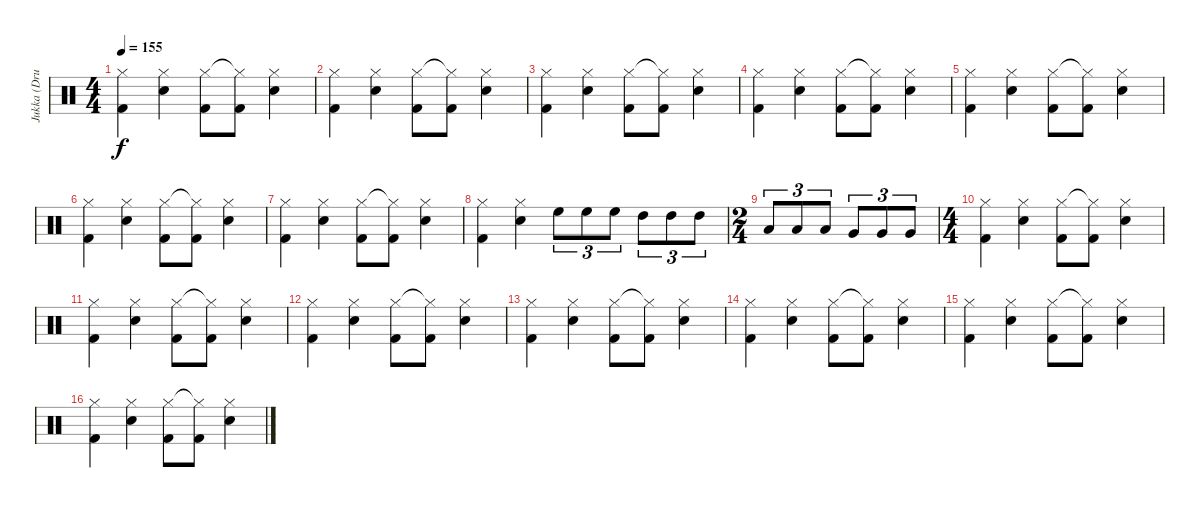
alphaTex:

\track ("Jukka (Drums)" "Jukka (Dru") {instrument percussion}
\staff {score}
\articulation defaults
\ts (4 4)
\tempo 155
\clef neutral
\ks c
("Hi-Hat (closed)" "Kick (hit) 2").4{dy f} ("Hi-Hat (closed)" "Snare (hit) 2").4 ("Hi-Hat (closed)" "Kick (hit) 2").8 ("Hi-Hat (closed)"{t} "Kick (hit) 2").8 ("Hi-Hat (closed)" "Snare (hit) 2").4 |
("Hi-Hat (closed)" "Kick (hit) 2").4 ("Hi-Hat (closed)" "Snare (hit) 2").4 ("Hi-Hat (closed)" "Kick (hit) 2").8 ("Hi-Hat (closed)"{t} "Kick (hit) 2").8 ("Hi-Hat (closed)" "Snare (hit) 2").4 |
("Hi-Hat (closed)" "Kick (hit) 2").4 ("Hi-Hat (closed)" "Snare (hit) 2").4 ("Hi-Hat (closed)" "Kick (hit) 2").8 ("Hi-Hat (closed)"{t} "Kick (hit) 2").8 ("Hi-Hat (closed)" "Snare (hit) 2").4 |
("Hi-Hat (closed)" "Kick (hit) 2").4 ("Hi-Hat (closed)" "Snare (hit) 2").4 ("Hi-Hat (closed)" "Kick (hit) 2").8 ("Hi-Hat (closed)"{t} "Kick (hit) 2").8 ("Hi-Hat (closed)" "Snare (hit) 2").4 |
("Hi-Hat (closed)" "Kick (hit) 2").4 ("Hi-Hat (closed)" "Snare (hit) 2").4 ("Hi-Hat (closed)" "Kick (hit) 2").8 ("Hi-Hat (closed)"{t} "Kick (hit) 2").8 ("Hi-Hat (closed)" "Snare (hit) 2").4 |
("Hi-Hat (closed)" "Kick (hit) 2").4 ("Hi-Hat (closed)" "Snare (hit) 2").4 ("Hi-Hat (closed)" "Kick (hit) 2").8 ("Hi-Hat (closed)"{t} "Kick (hit) 2").8 ("Hi-Hat (closed)" "Snare (hit) 2").4 |
("Hi-Hat (closed)" "Kick (hit) 2").4 ("Hi-Hat (closed)" "Snare (hit) 2").4 ("Hi-Hat (closed)" "Kick (hit) 2").8 ("Hi-Hat (closed)"{t} "Kick (hit) 2").8 ("Hi-Hat (closed)" "Snare (hit) 2").4 |
("Hi-Hat (closed)" "Kick (hit) 2").4 ("Hi-Hat (closed)" "Snare (hit) 2").4 "High Floor Tom (hit)".8{tu (3 2)} "High Floor Tom (hit)".8{tu (3 2)} "High Floor Tom (hit)".8{tu (3 2)} "High Tom (hit)".8{tu (3 2)} "High Tom (hit)".8{tu (3 2)} "High Tom (hit)".8{tu (3 2)} |
\ts (2 4)
"Low Tom (hit)".8{tu (3 2)} "Low Tom (hit)".8{tu (3 2)} "Low Tom (hit)".8{tu (3 2)} "Very Low Tom (hit)".8{tu (3 2)} "Very Low Tom (hit)".8{tu (3 2)} "Very Low Tom (hit)".8{tu (3 2)} |
\ts (4 4)
("Hi-Hat (closed)" "Kick (hit) 2").4 ("Hi-Hat (closed)" "Snare (hit) 2").4 ("Hi-Hat (closed)" "Kick (hit) 2").8 ("Hi-Hat (closed)"{t} "Kick (hit) 2").8 ("Hi-Hat (closed)" "Snare (hit) 2").4 |
("Hi-Hat (closed)" "Kick (hit) 2").4 ("Hi-Hat (closed)" "Snare (hit) 2").4 ("Hi-Hat (closed)" "Kick (hit) 2").8 ("Hi-Hat (closed)"{t} "Kick (hit) 2").8 ("Hi-Hat (closed)" "Snare (hit) 2").4 |
("Hi-Hat (closed)" "Kick (hit) 2").4 ("Hi-Hat (closed)" "Snare (hit) 2").4 ("Hi-Hat (closed)" "Kick (hit) 2").8 ("Hi-Hat (closed)"{t} "Kick (hit) 2").8 ("Hi-Hat (closed)" "Snare (hit) 2").4 |
("Hi-Hat (closed)" "Kick (hit) 2").4 ("Hi-Hat (closed)" "Snare (hit) 2").4 ("Hi-Hat (closed)" "Kick (hit) 2").8 ("Hi-Hat (closed)"{t} "Kick (hit) 2").8 ("Hi-Hat (closed)" "Snare (hit) 2").4 |
("Hi-Hat (closed)" "Kick (hit) 2").4 ("Hi-Hat (closed)" "Snare (hit) 2").4 ("Hi-Hat (closed)" "Kick (hit) 2").8 ("Hi-Hat (closed)"{t} "Kick (hit) 2").8 ("Hi-Hat (closed)" "Snare (hit) 2").4 |
("Hi-Hat (closed)" "Kick (hit) 2").4 ("Hi-Hat (closed)" "Snare (hit) 2").4 ("Hi-Hat (closed)" "Kick (hit) 2").8 ("Hi-Hat (closed)"{t} "Kick (hit) 2").8 ("Hi-Hat (closed)" "Snare (hit) 2").4 |
("Hi-Hat (closed)" "Kick (hit) 2").4 ("Hi-Hat (closed)" "Snare (hit) 2").4 ("Hi-Hat (closed)" "Kick (hit) 2").8 ("Hi-Hat (closed)"{t} "Kick (hit) 2").8 ("Hi-Hat (closed)" "Snare (hit) 2").4
